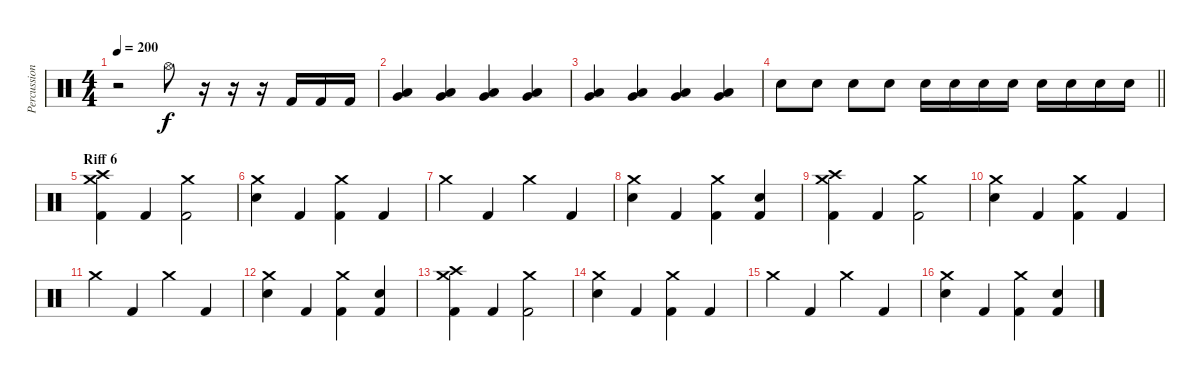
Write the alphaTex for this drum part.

\track ("Percussion" "Percussion") {instrument percussion}
\staff {score}
\articulation defaults
\ts (4 4)
\tempo 200
\clef neutral
\ks c
r.2{dy f} "Hi-Hat (open)".8 r.16 r.16 r.16 "Kick (hit) 2".16 "Kick (hit) 2".16 "Kick (hit) 2".16 |
("Very Low Tom (hit)" "Low Floor Tom (hit)").4 ("Very Low Tom (hit)" "Low Floor Tom (hit)").4 ("Very Low Tom (hit)" "Low Floor Tom (hit)").4 ("Very Low Tom (hit)" "Low Floor Tom (hit)").4 |
("Very Low Tom (hit)" "Low Floor Tom (hit)").4 ("Very Low Tom (hit)" "Low Floor Tom (hit)").4 ("Very Low Tom (hit)" "Low Floor Tom (hit)").4 ("Very Low Tom (hit)" "Low Floor Tom (hit)").4 |
\barLineRight lightlight "Electric Snare (hit)".8 "Electric Snare (hit)".8 "Electric Snare (hit)".8 "Electric Snare (hit)".8 "Electric Snare (hit)".16 "Electric Snare (hit)".16 "Electric Snare (hit)".16 "Electric Snare (hit)".16 "Electric Snare (hit)".16 "Electric Snare (hit)".16 "Electric Snare (hit)".16 "Electric Snare (hit)".16
|
\section ("" "Riff 6")
("Crash high (hit)" "Crash medium (hit)" "Kick (hit) 2").4 "Kick (hit) 2".4 ("Crash medium (hit)" "Kick (hit) 2").2 |
("Crash medium (hit)" "Electric Snare (hit)").4 "Kick (hit) 2".4 ("Crash medium (hit)" "Kick (hit) 2").4 "Kick (hit) 2".4 |
"Crash medium (hit)".4 "Kick (hit) 2".4 "Crash medium (hit)".4 "Kick (hit) 2".4 |
("Crash medium (hit)" "Electric Snare (hit)").4 "Kick (hit) 2".4 ("Crash medium (hit)" "Kick (hit) 2").4 ("Electric Snare (hit)" "Kick (hit) 2").4 |
("Crash high (hit)" "Crash medium (hit)" "Kick (hit) 2").4 "Kick (hit) 2".4 ("Crash medium (hit)" "Kick (hit) 2").2 |
("Crash medium (hit)" "Electric Snare (hit)").4 "Kick (hit) 2".4 ("Crash medium (hit)" "Kick (hit) 2").4 "Kick (hit) 2".4 |
"Crash medium (hit)".4 "Kick (hit) 2".4 "Crash medium (hit)".4 "Kick (hit) 2".4 |
("Crash medium (hit)" "Electric Snare (hit)").4 "Kick (hit) 2".4 ("Crash medium (hit)" "Kick (hit) 2").4 ("Electric Snare (hit)" "Kick (hit) 2").4 |
("Crash high (hit)" "Crash medium (hit)" "Kick (hit) 2").4 "Kick (hit) 2".4 ("Crash medium (hit)" "Kick (hit) 2").2 |
("Crash medium (hit)" "Electric Snare (hit)").4 "Kick (hit) 2".4 ("Crash medium (hit)" "Kick (hit) 2").4 "Kick (hit) 2".4 |
"Crash medium (hit)".4 "Kick (hit) 2".4 "Crash medium (hit)".4 "Kick (hit) 2".4 |
("Crash medium (hit)" "Electric Snare (hit)").4 "Kick (hit) 2".4 ("Crash medium (hit)" "Kick (hit) 2").4 ("Electric Snare (hit)" "Kick (hit) 2").4
